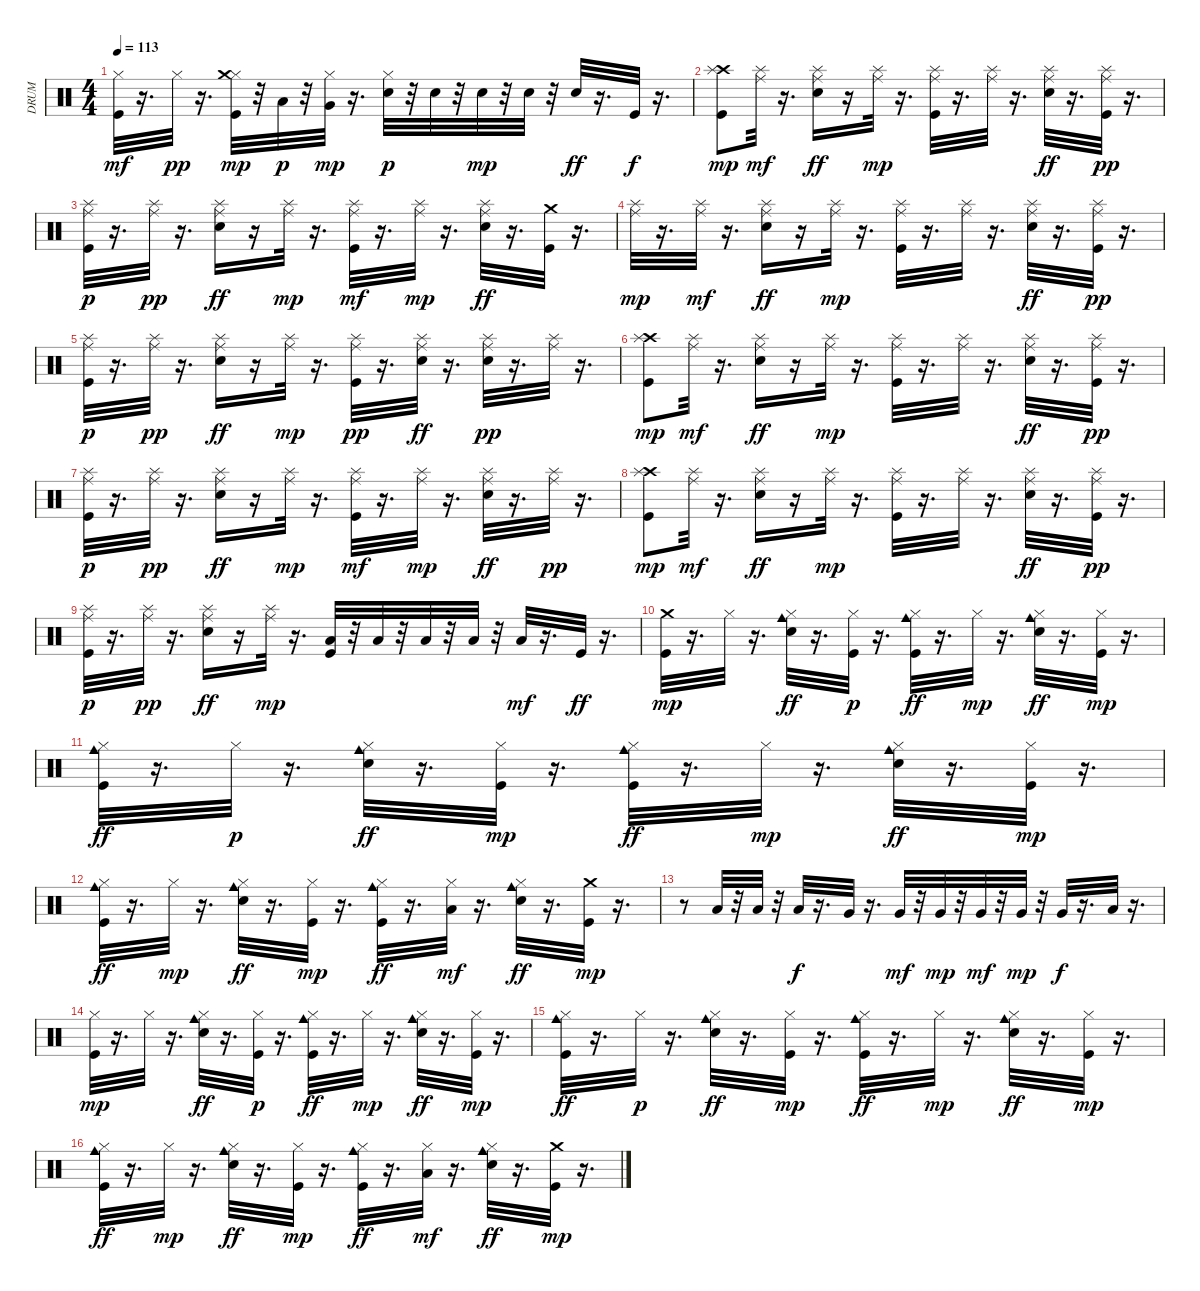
\track ("DRUM" "DRUM") {instrument percussion}
\staff {score}
\articulation defaults
\ts (4 4)
\tempo 113
\clef neutral
\ks c
("Kick (hit)" "Hi-Hat (closed)").32{dy mf} r.16{d} "Hi-Hat (closed)".32{dy pp} r.16{d} ("Hi-Hat (closed)" "Kick (hit)" "Crash medium (hit)").32{dy mp} r.32 "Low Tom (hit)".32{dy p} r.32 ("Hi-Hat (closed)" "Very Low Tom (hit)").32{dy mp} r.16{d} ("Hi-Hat (closed)" "Snare (hit) 2").32{dy p} r.32 "Snare (hit) 2".32 r.32 "Snare (hit) 2".32{dy mp} r.32 "Snare (hit) 2".32 r.32 "Snare (hit) 2".32{dy ff} r.16{d} "Kick (hit)".32{dy f} r.16{d} |
("Kick (hit)" "Crash high (hit)" "Splash (hit)").8{dy mp} ("Splash (hit)" "Ride (middle)").32{dy mf} r.16{d} ("Splash (hit)" "Ride (middle)" "Snare (hit) 2").16{dy ff} r.16 ("Splash (hit)" "Ride (middle)").32{dy mp} r.16{d} ("Splash (hit)" "Kick (hit)" "Ride (middle)").32 r.16{d} ("Splash (hit)" "Ride (middle)").32 r.16{d} ("Ride (middle)" "Splash (hit)" "Snare (hit) 2").32{dy ff} r.16{d} ("Ride (middle)" "Kick (hit)" "Splash (hit)").32{dy pp} r.16{d} |
("Kick (hit)" "Ride (middle)" "Splash (hit)").32{dy p} r.16{d} ("Ride (middle)" "Splash (hit)").32{dy pp} r.16{d} ("Splash (hit)" "Ride (middle)" "Snare (hit) 2").16{dy ff} r.16 ("Splash (hit)" "Ride (middle)").32{dy mp} r.16{d} ("Splash (hit)" "Kick (hit)" "Ride (middle)").32{dy mf} r.16{d} ("Splash (hit)" "Ride (middle)").32{dy mp} r.16{d} ("Splash (hit)" "Ride (middle)" "Snare (hit) 2").32{dy ff} r.16{d} ("Crash medium (hit)" "Kick (hit)").32 r.16{d} |
("Splash (hit)" "Ride (middle)").32{dy mp} r.16{d} ("Splash (hit)" "Ride (middle)").32{dy mf} r.16{d} ("Splash (hit)" "Ride (middle)" "Snare (hit) 2").16{dy ff} r.16 ("Splash (hit)" "Ride (middle)").32{dy mp} r.16{d} ("Splash (hit)" "Kick (hit)" "Ride (middle)").32 r.16{d} ("Splash (hit)" "Ride (middle)").32 r.16{d} ("Ride (middle)" "Splash (hit)" "Snare (hit) 2").32{dy ff} r.16{d} ("Ride (middle)" "Kick (hit)" "Splash (hit)").32{dy pp} r.16{d} |
("Kick (hit)" "Ride (middle)" "Splash (hit)").32{dy p} r.16{d} ("Ride (middle)" "Splash (hit)").32{dy pp} r.16{d} ("Splash (hit)" "Ride (middle)" "Snare (hit) 2").16{dy ff} r.16 ("Splash (hit)" "Ride (middle)").32{dy mp} r.16{d} ("Kick (hit)" "Ride (middle)" "Splash (hit)").32{dy pp} r.16{d} ("Ride (middle)" "Splash (hit)" "Snare (hit) 2").32{dy ff} r.16{d} ("Snare (hit) 2" "Ride (middle)" "Splash (hit)").32{dy pp} r.16{d} ("Ride (middle)" "Splash (hit)").32 r.16{d} |
("Kick (hit)" "Crash high (hit)" "Splash (hit)").8{dy mp} ("Splash (hit)" "Ride (middle)").32{dy mf} r.16{d} ("Splash (hit)" "Ride (middle)" "Snare (hit) 2").16{dy ff} r.16 ("Splash (hit)" "Ride (middle)").32{dy mp} r.16{d} ("Splash (hit)" "Kick (hit)" "Ride (middle)").32 r.16{d} ("Splash (hit)" "Ride (middle)").32 r.16{d} ("Ride (middle)" "Splash (hit)" "Snare (hit) 2").32{dy ff} r.16{d} ("Ride (middle)" "Kick (hit)" "Splash (hit)").32{dy pp} r.16{d} |
("Kick (hit)" "Ride (middle)" "Splash (hit)").32{dy p} r.16{d} ("Ride (middle)" "Splash (hit)").32{dy pp} r.16{d} ("Splash (hit)" "Ride (middle)" "Snare (hit) 2").16{dy ff} r.16 ("Splash (hit)" "Ride (middle)").32{dy mp} r.16{d} ("Splash (hit)" "Kick (hit)" "Ride (middle)").32{dy mf} r.16{d} ("Splash (hit)" "Ride (middle)").32{dy mp} r.16{d} ("Splash (hit)" "Ride (middle)" "Snare (hit) 2").32{dy ff} r.16{d} ("Ride (middle)" "Splash (hit)").32{dy pp} r.16{d} |
("Kick (hit)" "Crash high (hit)" "Splash (hit)").8{dy mp} ("Splash (hit)" "Ride (middle)").32{dy mf} r.16{d} ("Splash (hit)" "Ride (middle)" "Snare (hit) 2").16{dy ff} r.16 ("Splash (hit)" "Ride (middle)").32{dy mp} r.16{d} ("Splash (hit)" "Kick (hit)" "Ride (middle)").32 r.16{d} ("Splash (hit)" "Ride (middle)").32 r.16{d} ("Ride (middle)" "Splash (hit)" "Snare (hit) 2").32{dy ff} r.16{d} ("Ride (middle)" "Kick (hit)" "Splash (hit)").32{dy pp} r.16{d} |
("Kick (hit)" "Ride (middle)" "Splash (hit)").32{dy p} r.16{d} ("Ride (middle)" "Splash (hit)").32{dy pp} r.16{d} ("Splash (hit)" "Ride (middle)" "Snare (hit) 2").16{dy ff} r.16 ("Splash (hit)" "Ride (middle)").32{dy mp} r.16{d} ("Kick (hit)" "Low Tom (hit)").32 r.32 "Low Tom (hit)".32 r.32 "Low Tom (hit)".32 r.32 "Low Tom (hit)".32 r.32 "Low Tom (hit)".32{dy mf} r.16{d} "Kick (hit)".32{dy ff} r.16{d} |
("Kick (hit)" "Crash medium (hit)").32{dy mp} r.16{d} "Hi-Hat (closed)".32 r.16{d} ("Cowbell medium (hit)" "Hi-Hat (closed)" "Snare (hit) 2").32{dy ff} r.16{d} ("Hi-Hat (closed)" "Kick (hit)").32{dy p} r.16{d} ("Cowbell medium (hit)" "Hi-Hat (closed)" "Kick (hit)").32{dy ff} r.16{d} "Hi-Hat (closed)".32{dy mp} r.16{d} ("Cowbell medium (hit)" "Hi-Hat (closed)" "Snare (hit) 2").32{dy ff} r.16{d} ("Hi-Hat (closed)" "Kick (hit)").32{dy mp} r.16{d} |
("Cowbell medium (hit)" "Hi-Hat (closed)" "Kick (hit)").32{dy ff} r.16{d} "Hi-Hat (closed)".32{dy p} r.16{d} ("Cowbell medium (hit)" "Hi-Hat (closed)" "Snare (hit) 2").32{dy ff} r.16{d} ("Hi-Hat (closed)" "Kick (hit)").32{dy mp} r.16{d} ("Cowbell medium (hit)" "Hi-Hat (closed)" "Kick (hit)").32{dy ff} r.16{d} "Hi-Hat (closed)".32{dy mp} r.16{d} ("Cowbell medium (hit)" "Hi-Hat (closed)" "Snare (hit) 2").32{dy ff} r.16{d} ("Hi-Hat (closed)" "Kick (hit)").32{dy mp} r.16{d} |
("Cowbell medium (hit)" "Hi-Hat (closed)" "Kick (hit)").32{dy ff} r.16{d} "Hi-Hat (closed)".32{dy mp} r.16{d} ("Cowbell medium (hit)" "Hi-Hat (closed)" "Snare (hit) 2").32{dy ff} r.16{d} ("Hi-Hat (closed)" "Kick (hit)").32{dy mp} r.16{d} ("Cowbell medium (hit)" "Hi-Hat (closed)" "Kick (hit)").32{dy ff} r.16{d} ("Hi-Hat (closed)" "Low Tom (hit)").32{dy mf} r.16{d} ("Cowbell medium (hit)" "Hi-Hat (closed)" "Snare (hit) 2").32{dy ff} r.16{d} ("Kick (hit)" "Crash medium (hit)").32{dy mp} r.16{d} |
r.8 "Low Tom (hit)".32 r.32 "Low Tom (hit)".32 r.32 "Low Tom (hit)".32{dy f} r.16{d} "Very Low Tom (hit)".32 r.16{d} "Very Low Tom (hit)".32{dy mf} r.32 "Very Low Tom (hit)".32{dy mp} r.32 "Very Low Tom (hit)".32{dy mf} r.32 "Very Low Tom (hit)".32{dy mp} r.32 "Very Low Tom (hit)".32{dy f} r.16{d} "Low Floor Tom (hit)".32 r.16{d} |
("Kick (hit)" "Hi-Hat (closed)").32{dy mp} r.16{d} "Hi-Hat (closed)".32 r.16{d} ("Cowbell medium (hit)" "Hi-Hat (closed)" "Snare (hit) 2").32{dy ff} r.16{d} ("Hi-Hat (closed)" "Kick (hit)").32{dy p} r.16{d} ("Cowbell medium (hit)" "Hi-Hat (closed)" "Kick (hit)").32{dy ff} r.16{d} "Hi-Hat (closed)".32{dy mp} r.16{d} ("Cowbell medium (hit)" "Hi-Hat (closed)" "Snare (hit) 2").32{dy ff} r.16{d} ("Hi-Hat (closed)" "Kick (hit)").32{dy mp} r.16{d} |
("Cowbell medium (hit)" "Hi-Hat (closed)" "Kick (hit)").32{dy ff} r.16{d} "Hi-Hat (closed)".32{dy p} r.16{d} ("Cowbell medium (hit)" "Hi-Hat (closed)" "Snare (hit) 2").32{dy ff} r.16{d} ("Hi-Hat (closed)" "Kick (hit)").32{dy mp} r.16{d} ("Cowbell medium (hit)" "Hi-Hat (closed)" "Kick (hit)").32{dy ff} r.16{d} "Hi-Hat (closed)".32{dy mp} r.16{d} ("Cowbell medium (hit)" "Hi-Hat (closed)" "Snare (hit) 2").32{dy ff} r.16{d} ("Hi-Hat (closed)" "Kick (hit)").32{dy mp} r.16{d} |
("Cowbell medium (hit)" "Hi-Hat (closed)" "Kick (hit)").32{dy ff} r.16{d} "Hi-Hat (closed)".32{dy mp} r.16{d} ("Cowbell medium (hit)" "Hi-Hat (closed)" "Snare (hit) 2").32{dy ff} r.16{d} ("Hi-Hat (closed)" "Kick (hit)").32{dy mp} r.16{d} ("Cowbell medium (hit)" "Hi-Hat (closed)" "Kick (hit)").32{dy ff} r.16{d} ("Hi-Hat (closed)" "Low Tom (hit)").32{dy mf} r.16{d} ("Cowbell medium (hit)" "Hi-Hat (closed)" "Snare (hit) 2").32{dy ff} r.16{d} ("Kick (hit)" "Crash medium (hit)").32{dy mp} r.16{d}
